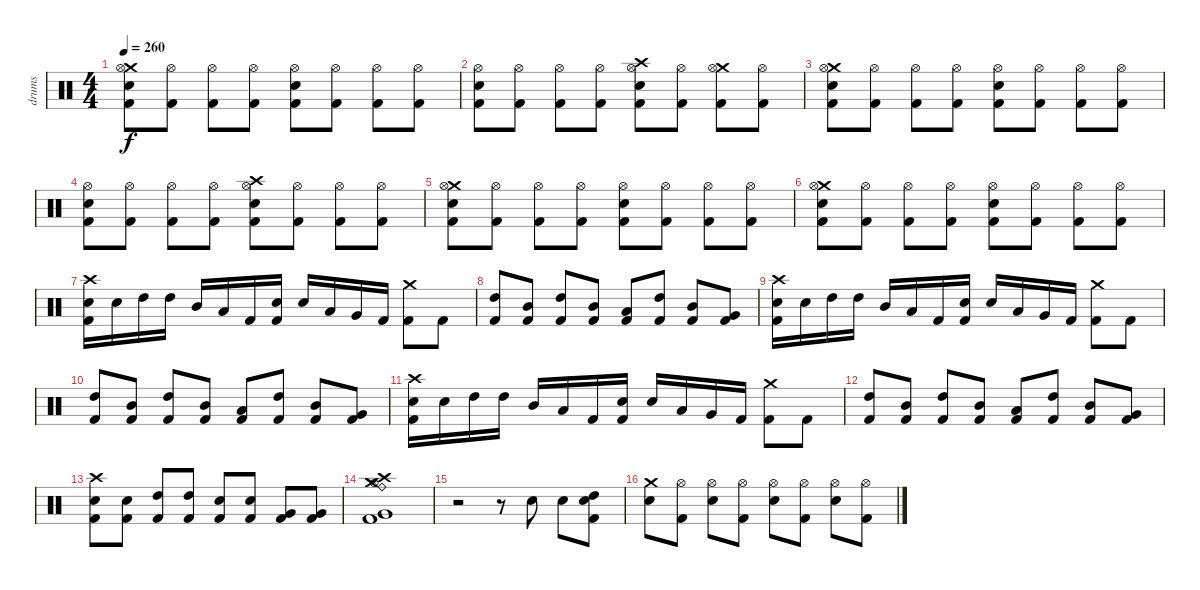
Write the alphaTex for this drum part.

\track ("drums" "drums") {instrument percussion}
\staff {score}
\articulation defaults
\ts (4 4)
\tempo 260
\clef neutral
\ks c
("Crash medium (hit)" "Hi-Hat (open)" "Electric Snare (hit)" "Kick (hit) 2").8{dy f} ("Hi-Hat (open)" "Kick (hit) 2").8 ("Hi-Hat (open)" "Kick (hit) 2").8 ("Hi-Hat (open)" "Kick (hit) 2").8 ("Hi-Hat (open)" "Electric Snare (hit)" "Kick (hit) 2").8 ("Hi-Hat (open)" "Kick (hit) 2").8 ("Hi-Hat (open)" "Kick (hit) 2").8 ("Hi-Hat (open)" "Kick (hit) 2").8 |
("Hi-Hat (open)" "Electric Snare (hit)" "Kick (hit) 2").8 ("Hi-Hat (open)" "Kick (hit) 2").8 ("Hi-Hat (open)" "Kick (hit) 2").8 ("Hi-Hat (open)" "Kick (hit) 2").8 ("Crash high (hit)" "Hi-Hat (open)" "Electric Snare (hit)" "Kick (hit) 2").8 ("Hi-Hat (open)" "Kick (hit) 2").8 ("Crash medium (hit)" "Hi-Hat (open)" "Kick (hit) 2").8 ("Hi-Hat (open)" "Kick (hit) 2").8 |
("Crash medium (hit)" "Hi-Hat (open)" "Electric Snare (hit)" "Kick (hit) 2").8 ("Hi-Hat (open)" "Kick (hit) 2").8 ("Hi-Hat (open)" "Kick (hit) 2").8 ("Hi-Hat (open)" "Kick (hit) 2").8 ("Hi-Hat (open)" "Electric Snare (hit)" "Kick (hit) 2").8 ("Hi-Hat (open)" "Kick (hit) 2").8 ("Hi-Hat (open)" "Kick (hit) 2").8 ("Hi-Hat (open)" "Kick (hit) 2").8 |
("Hi-Hat (open)" "Electric Snare (hit)" "Kick (hit) 2").8 ("Hi-Hat (open)" "Kick (hit) 2").8 ("Hi-Hat (open)" "Kick (hit) 2").8 ("Hi-Hat (open)" "Kick (hit) 2").8 ("Crash high (hit)" "Hi-Hat (open)" "Electric Snare (hit)" "Kick (hit) 2").8 ("Hi-Hat (open)" "Kick (hit) 2").8 ("Hi-Hat (open)" "Kick (hit) 2").8 ("Hi-Hat (open)" "Kick (hit) 2").8 |
("Crash medium (hit)" "Hi-Hat (open)" "Electric Snare (hit)" "Kick (hit) 2").8 ("Hi-Hat (open)" "Kick (hit) 2").8 ("Hi-Hat (open)" "Kick (hit) 2").8 ("Hi-Hat (open)" "Kick (hit) 2").8 ("Hi-Hat (open)" "Electric Snare (hit)" "Kick (hit) 2").8 ("Hi-Hat (open)" "Kick (hit) 2").8 ("Hi-Hat (open)" "Kick (hit) 2").8 ("Hi-Hat (open)" "Kick (hit) 2").8 |
("Crash medium (hit)" "Hi-Hat (open)" "Electric Snare (hit)" "Kick (hit) 2").8 ("Hi-Hat (open)" "Kick (hit) 2").8 ("Hi-Hat (open)" "Kick (hit) 2").8 ("Hi-Hat (open)" "Kick (hit) 2").8 ("Hi-Hat (open)" "Electric Snare (hit)" "Kick (hit) 2").8 ("Hi-Hat (open)" "Kick (hit) 2").8 ("Hi-Hat (open)" "Kick (hit) 2").8 ("Hi-Hat (open)" "Kick (hit) 2").8 |
("Crash high (hit)" "Electric Snare (hit)" "Kick (hit) 2").16 "Electric Snare (hit)".16 "High Tom (hit)".16 "High Tom (hit)".16 "Mid Tom (hit)".16 "Low Tom (hit)".16 "Kick (hit) 2".16 ("Electric Snare (hit)" "Kick (hit) 2").16 "Electric Snare (hit)".16 "Low Tom (hit)".16 "Very Low Tom (hit)".16 "Kick (hit) 2".16 ("Crash medium (hit)" "Kick (hit) 2").8 "Kick (hit) 2".8 |
("High Tom (hit)" "Kick (hit) 2").8 ("Mid Tom (hit)" "Kick (hit) 2").8 ("High Tom (hit)" "Kick (hit) 2").8 ("Mid Tom (hit)" "Kick (hit) 2").8 ("Low Tom (hit)" "Kick (hit) 2").8 ("High Tom (hit)" "Kick (hit) 2").8 ("Mid Tom (hit)" "Kick (hit) 2").8 ("Very Low Tom (hit)" "Kick (hit) 2").8 |
("Crash high (hit)" "Electric Snare (hit)" "Kick (hit) 2").16 "Electric Snare (hit)".16 "High Tom (hit)".16 "High Tom (hit)".16 "Mid Tom (hit)".16 "Low Tom (hit)".16 "Kick (hit) 2".16 ("Electric Snare (hit)" "Kick (hit) 2").16 "Electric Snare (hit)".16 "Low Tom (hit)".16 "Very Low Tom (hit)".16 "Kick (hit) 2".16 ("Crash medium (hit)" "Kick (hit) 2").8 "Kick (hit) 2".8 |
("High Tom (hit)" "Kick (hit) 2").8 ("Mid Tom (hit)" "Kick (hit) 2").8 ("High Tom (hit)" "Kick (hit) 2").8 ("Mid Tom (hit)" "Kick (hit) 2").8 ("Low Tom (hit)" "Kick (hit) 2").8 ("High Tom (hit)" "Kick (hit) 2").8 ("Mid Tom (hit)" "Kick (hit) 2").8 ("Very Low Tom (hit)" "Kick (hit) 2").8 |
("Crash high (hit)" "Electric Snare (hit)" "Kick (hit) 2").16 "Electric Snare (hit)".16 "High Tom (hit)".16 "High Tom (hit)".16 "Mid Tom (hit)".16 "Low Tom (hit)".16 "Kick (hit) 2".16 ("Electric Snare (hit)" "Kick (hit) 2").16 "Electric Snare (hit)".16 "Low Tom (hit)".16 "Very Low Tom (hit)".16 "Kick (hit) 2".16 ("Crash medium (hit)" "Kick (hit) 2").8 "Kick (hit) 2".8 |
("High Tom (hit)" "Kick (hit) 2").8 ("Mid Tom (hit)" "Kick (hit) 2").8 ("High Tom (hit)" "Kick (hit) 2").8 ("Mid Tom (hit)" "Kick (hit) 2").8 ("Low Tom (hit)" "Kick (hit) 2").8 ("High Tom (hit)" "Kick (hit) 2").8 ("Mid Tom (hit)" "Kick (hit) 2").8 ("Very Low Tom (hit)" "Kick (hit) 2").8 |
("Crash high (hit)" "Electric Snare (hit)" "Kick (hit) 2").8 ("Electric Snare (hit)" "Kick (hit) 2").8 ("High Tom (hit)" "Kick (hit) 2").8 ("High Tom (hit)" "Kick (hit) 2").8 ("Electric Snare (hit)" "Kick (hit) 2").8 ("Electric Snare (hit)" "Kick (hit) 2").8 ("Very Low Tom (hit)" "Kick (hit) 2").8 ("Very Low Tom (hit)" "Kick (hit) 2").8 |
("Very Low Tom (hit)" "Crash medium (hit)" "Crash high (hit)" "Hi-Hat (open)" "Ride (bell)" "Kick (hit) 2").1 |
r.2 r.8 "Electric Snare (hit)".8 "Electric Snare (hit)".8 ("Electric Snare (hit)" "High Tom (hit)" "Kick (hit) 2").8 |
("Crash medium (hit)" "Electric Snare (hit)").8 ("Hi-Hat (open)" "Kick (hit) 2").8 ("Hi-Hat (open)" "Electric Snare (hit)").8 ("Hi-Hat (open)" "Kick (hit) 2").8 ("Hi-Hat (open)" "Electric Snare (hit)").8 ("Hi-Hat (open)" "Kick (hit) 2").8 ("Hi-Hat (open)" "Electric Snare (hit)").8 ("Hi-Hat (open)" "Kick (hit) 2").8
